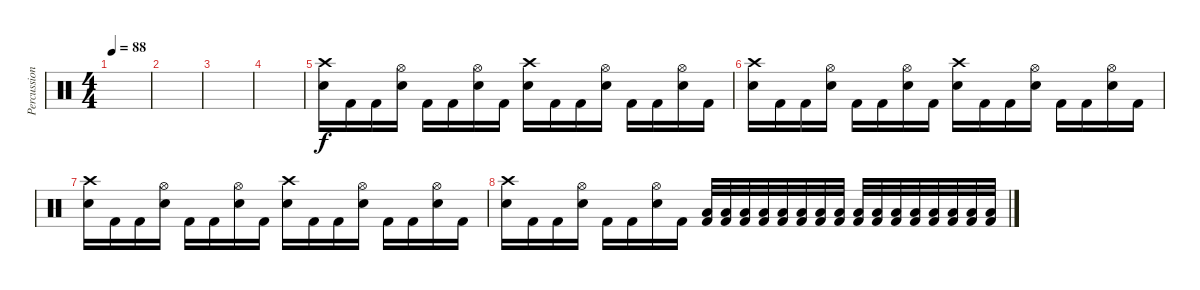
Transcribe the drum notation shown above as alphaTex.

\track ("Percussion" "Percussion") {instrument percussion}
\staff {score}
\articulation defaults
\ts (4 4)
\tempo 88
\clef neutral
\ks c
|
|
|
|
("Crash high (hit)" "Snare (hit) 2").16{volume 13} "Kick (hit) 2".16 "Kick (hit) 2".16 ("Hi-Hat (open)" "Snare (hit) 2").16 "Kick (hit) 2".16 "Kick (hit) 2".16 ("Hi-Hat (open)" "Snare (hit) 2").16 "Kick (hit) 2".16 ("Crash high (hit)" "Snare (hit) 2").16 "Kick (hit) 2".16 "Kick (hit) 2".16 ("Hi-Hat (open)" "Snare (hit) 2").16 "Kick (hit) 2".16 "Kick (hit) 2".16 ("Hi-Hat (open)" "Snare (hit) 2").16 "Kick (hit) 2".16 |
("Crash high (hit)" "Snare (hit) 2").16 "Kick (hit) 2".16 "Kick (hit) 2".16 ("Hi-Hat (open)" "Snare (hit) 2").16 "Kick (hit) 2".16 "Kick (hit) 2".16 ("Hi-Hat (open)" "Snare (hit) 2").16 "Kick (hit) 2".16 ("Crash high (hit)" "Snare (hit) 2").16 "Kick (hit) 2".16 "Kick (hit) 2".16 ("Hi-Hat (open)" "Snare (hit) 2").16 "Kick (hit) 2".16 "Kick (hit) 2".16 ("Hi-Hat (open)" "Snare (hit) 2").16 "Kick (hit) 2".16 |
("Crash high (hit)" "Snare (hit) 2").16 "Kick (hit) 2".16 "Kick (hit) 2".16 ("Hi-Hat (open)" "Snare (hit) 2").16 "Kick (hit) 2".16 "Kick (hit) 2".16 ("Hi-Hat (open)" "Snare (hit) 2").16 "Kick (hit) 2".16 ("Crash high (hit)" "Snare (hit) 2").16 "Kick (hit) 2".16 "Kick (hit) 2".16 ("Hi-Hat (open)" "Snare (hit) 2").16 "Kick (hit) 2".16 "Kick (hit) 2".16 ("Hi-Hat (open)" "Snare (hit) 2").16 "Kick (hit) 2".16 |
("Crash high (hit)" "Snare (hit) 2").16 "Kick (hit) 2".16 "Kick (hit) 2".16 ("Hi-Hat (open)" "Snare (hit) 2").16 "Kick (hit) 2".16 "Kick (hit) 2".16 ("Hi-Hat (open)" "Snare (hit) 2").16 "Kick (hit) 2".16 ("Low Tom (hit)" "Kick (hit) 2").32 ("Low Tom (hit)" "Kick (hit) 2").32 ("Low Tom (hit)" "Kick (hit) 2").32 ("Low Tom (hit)" "Kick (hit) 2").32 ("Low Tom (hit)" "Kick (hit) 2").32 ("Low Tom (hit)" "Kick (hit) 2").32 ("Low Tom (hit)" "Kick (hit) 2").32 ("Low Tom (hit)" "Kick (hit) 2").32 ("Low Tom (hit)" "Kick (hit) 2").32 ("Low Tom (hit)" "Kick (hit) 2").32 ("Low Tom (hit)" "Kick (hit) 2").32 ("Low Tom (hit)" "Kick (hit) 2").32 ("Low Tom (hit)" "Kick (hit) 2").32 ("Low Tom (hit)" "Kick (hit) 2").32 ("Low Tom (hit)" "Kick (hit) 2").32 ("Low Tom (hit)" "Kick (hit) 2").32
